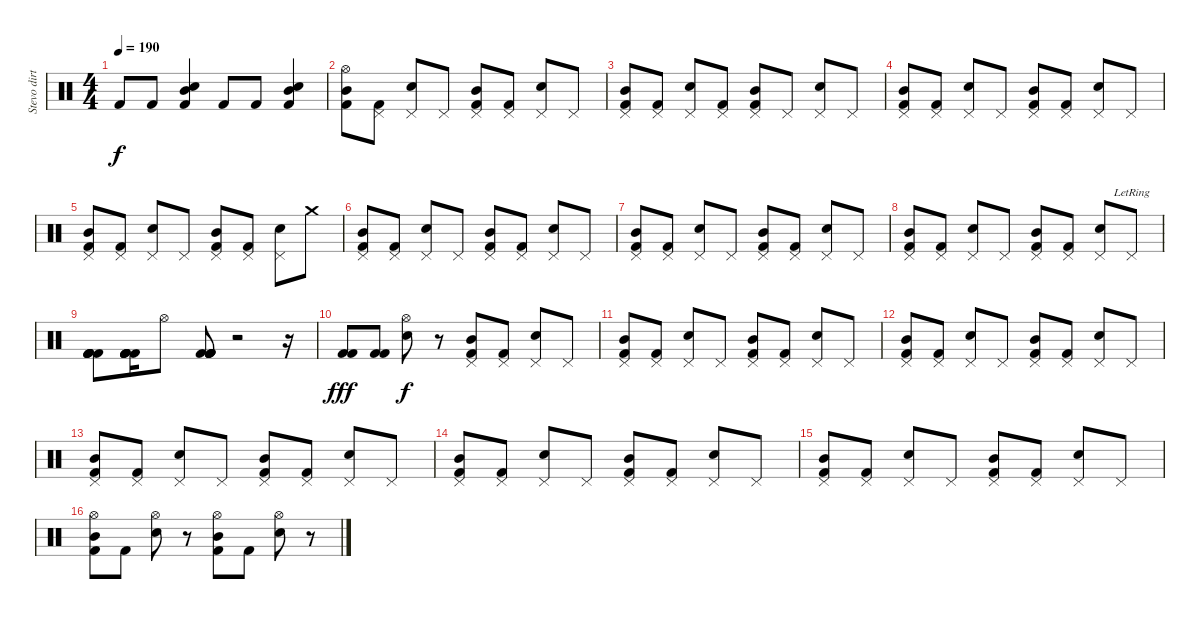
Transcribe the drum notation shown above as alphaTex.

\track ("Stevo dirty poo (drummer)" "Stevo dirt") {instrument percussion}
\staff {score}
\articulation defaults
\ts (4 4)
\tempo 190
\clef neutral
\ks c "Kick (hit) 2".8{dy f} "Kick (hit) 2".8
("Mid Tom (hit)" "Snare (hit) 2" "Kick (hit) 2").4 "Kick (hit) 2".8 "Kick (hit) 2".8 ("Mid Tom (hit)" "Snare (hit) 2" "Kick (hit) 2").4 |
("Mid Tom (hit)" "Hi-Hat (open)" "Kick (hit) 2").8 ("Pedal Hi-Hat (hit)" "Kick (hit) 2").8 ("Snare (hit) 2" "Pedal Hi-Hat (hit)").8 "Pedal Hi-Hat (hit)".8 ("Mid Tom (hit)" "Pedal Hi-Hat (hit)" "Kick (hit) 2").8 ("Pedal Hi-Hat (hit)" "Kick (hit) 2").8 ("Snare (hit) 2" "Pedal Hi-Hat (hit)").8 "Pedal Hi-Hat (hit)".8 |
("Mid Tom (hit)" "Pedal Hi-Hat (hit)" "Kick (hit) 2").8 ("Pedal Hi-Hat (hit)" "Kick (hit) 2").8 ("Snare (hit) 2" "Pedal Hi-Hat (hit)").8 ("Pedal Hi-Hat (hit)" "Kick (hit) 2").8 ("Mid Tom (hit)" "Pedal Hi-Hat (hit)" "Kick (hit) 2").8 "Pedal Hi-Hat (hit)".8 ("Snare (hit) 2" "Pedal Hi-Hat (hit)").8 "Pedal Hi-Hat (hit)".8 |
("Mid Tom (hit)" "Pedal Hi-Hat (hit)" "Kick (hit) 2").8 ("Pedal Hi-Hat (hit)" "Kick (hit) 2").8 ("Snare (hit) 2" "Pedal Hi-Hat (hit)").8 "Pedal Hi-Hat (hit)".8 ("Mid Tom (hit)" "Pedal Hi-Hat (hit)" "Kick (hit) 2").8 ("Pedal Hi-Hat (hit)" "Kick (hit) 2").8 ("Snare (hit) 2" "Pedal Hi-Hat (hit)").8 "Pedal Hi-Hat (hit)".8 |
("Mid Tom (hit)" "Pedal Hi-Hat (hit)" "Kick (hit) 2").8 ("Pedal Hi-Hat (hit)" "Kick (hit) 2").8 ("Snare (hit) 2" "Pedal Hi-Hat (hit)").8 "Pedal Hi-Hat (hit)".8 ("Mid Tom (hit)" "Pedal Hi-Hat (hit)" "Kick (hit) 2").8 ("Pedal Hi-Hat (hit)" "Kick (hit) 2").8 ("Snare (hit) 2" "Pedal Hi-Hat (hit)").8 "Crash medium (hit)".8 |
("Mid Tom (hit)" "Pedal Hi-Hat (hit)" "Kick (hit) 2").8 ("Pedal Hi-Hat (hit)" "Kick (hit) 2").8 ("Snare (hit) 2" "Pedal Hi-Hat (hit)").8 "Pedal Hi-Hat (hit)".8 ("Mid Tom (hit)" "Pedal Hi-Hat (hit)" "Kick (hit) 2").8 ("Pedal Hi-Hat (hit)" "Kick (hit) 2").8 ("Snare (hit) 2" "Pedal Hi-Hat (hit)").8 "Pedal Hi-Hat (hit)".8 |
("Mid Tom (hit)" "Pedal Hi-Hat (hit)" "Kick (hit) 2").8 ("Pedal Hi-Hat (hit)" "Kick (hit) 2").8 ("Snare (hit) 2" "Pedal Hi-Hat (hit)").8 "Pedal Hi-Hat (hit)".8 ("Mid Tom (hit)" "Pedal Hi-Hat (hit)" "Kick (hit) 2").8 ("Pedal Hi-Hat (hit)" "Kick (hit) 2").8 ("Snare (hit) 2" "Pedal Hi-Hat (hit)").8 "Pedal Hi-Hat (hit)".8 |
("Mid Tom (hit)" "Pedal Hi-Hat (hit)" "Kick (hit) 2").8 ("Pedal Hi-Hat (hit)" "Kick (hit) 2").8 ("Snare (hit) 2" "Pedal Hi-Hat (hit)").8 "Pedal Hi-Hat (hit)".8 ("Mid Tom (hit)" "Pedal Hi-Hat (hit)" "Kick (hit) 2").8 ("Pedal Hi-Hat (hit)" "Kick (hit) 2").8 ("Snare (hit) 2" "Pedal Hi-Hat (hit)").8 "Pedal Hi-Hat (hit)"{lr}.8 |
("Kick (hit) 2" "Kick (hit) 2" "Kick (hit) 2" "Kick (hit) 2" "Kick (hit) 2").8 ("Kick (hit) 2" "Kick (hit) 2" "Kick (hit) 2" "Kick (hit) 2" "Kick (hit) 2").16 "Hi-Hat (open)".8 ("Kick (hit) 2" "Kick (hit) 2" "Kick (hit) 2" "Kick (hit) 2" "Kick (hit) 2").8 r.2 r.16 |
("Kick (hit) 2" "Kick (hit) 2").8{dy fff} ("Kick (hit) 2" "Kick (hit) 2").8 ("Snare (hit) 2" "Hi-Hat (open)").8{dy f} r.8 ("Mid Tom (hit)" "Pedal Hi-Hat (hit)" "Kick (hit) 2").8 ("Pedal Hi-Hat (hit)" "Kick (hit) 2").8 ("Snare (hit) 2" "Pedal Hi-Hat (hit)").8 "Pedal Hi-Hat (hit)".8 |
("Mid Tom (hit)" "Pedal Hi-Hat (hit)" "Kick (hit) 2").8 ("Pedal Hi-Hat (hit)" "Kick (hit) 2").8 ("Snare (hit) 2" "Pedal Hi-Hat (hit)").8 "Pedal Hi-Hat (hit)".8 ("Mid Tom (hit)" "Pedal Hi-Hat (hit)" "Kick (hit) 2").8 ("Pedal Hi-Hat (hit)" "Kick (hit) 2").8 ("Snare (hit) 2" "Pedal Hi-Hat (hit)").8 "Pedal Hi-Hat (hit)".8 |
("Mid Tom (hit)" "Pedal Hi-Hat (hit)" "Kick (hit) 2").8 ("Pedal Hi-Hat (hit)" "Kick (hit) 2").8 ("Snare (hit) 2" "Pedal Hi-Hat (hit)").8 "Pedal Hi-Hat (hit)".8 ("Mid Tom (hit)" "Pedal Hi-Hat (hit)" "Kick (hit) 2").8 ("Pedal Hi-Hat (hit)" "Kick (hit) 2").8 ("Snare (hit) 2" "Pedal Hi-Hat (hit)").8 "Pedal Hi-Hat (hit)".8 |
("Mid Tom (hit)" "Pedal Hi-Hat (hit)" "Kick (hit) 2").8 ("Pedal Hi-Hat (hit)" "Kick (hit) 2").8 ("Snare (hit) 2" "Pedal Hi-Hat (hit)").8 "Pedal Hi-Hat (hit)".8 ("Mid Tom (hit)" "Pedal Hi-Hat (hit)" "Kick (hit) 2").8 ("Pedal Hi-Hat (hit)" "Kick (hit) 2").8 ("Snare (hit) 2" "Pedal Hi-Hat (hit)").8 "Pedal Hi-Hat (hit)".8 |
("Mid Tom (hit)" "Pedal Hi-Hat (hit)" "Kick (hit) 2").8 ("Pedal Hi-Hat (hit)" "Kick (hit) 2").8 ("Snare (hit) 2" "Pedal Hi-Hat (hit)").8 "Pedal Hi-Hat (hit)".8 ("Mid Tom (hit)" "Pedal Hi-Hat (hit)" "Kick (hit) 2").8 ("Pedal Hi-Hat (hit)" "Kick (hit) 2").8 ("Snare (hit) 2" "Pedal Hi-Hat (hit)").8 "Pedal Hi-Hat (hit)".8 |
("Mid Tom (hit)" "Pedal Hi-Hat (hit)" "Kick (hit) 2").8 ("Pedal Hi-Hat (hit)" "Kick (hit) 2").8 ("Snare (hit) 2" "Pedal Hi-Hat (hit)").8 "Pedal Hi-Hat (hit)".8 ("Mid Tom (hit)" "Pedal Hi-Hat (hit)" "Kick (hit) 2").8 ("Pedal Hi-Hat (hit)" "Kick (hit) 2").8 ("Snare (hit) 2" "Pedal Hi-Hat (hit)").8 "Pedal Hi-Hat (hit)".8 |
("Mid Tom (hit)" "Hi-Hat (open)" "Kick (hit) 2").8 "Kick (hit) 2".8 ("Snare (hit) 2" "Hi-Hat (open)").8 r.8 ("Mid Tom (hit)" "Hi-Hat (open)" "Kick (hit) 2").8 "Kick (hit) 2".8 ("Snare (hit) 2" "Hi-Hat (open)").8 r.8
